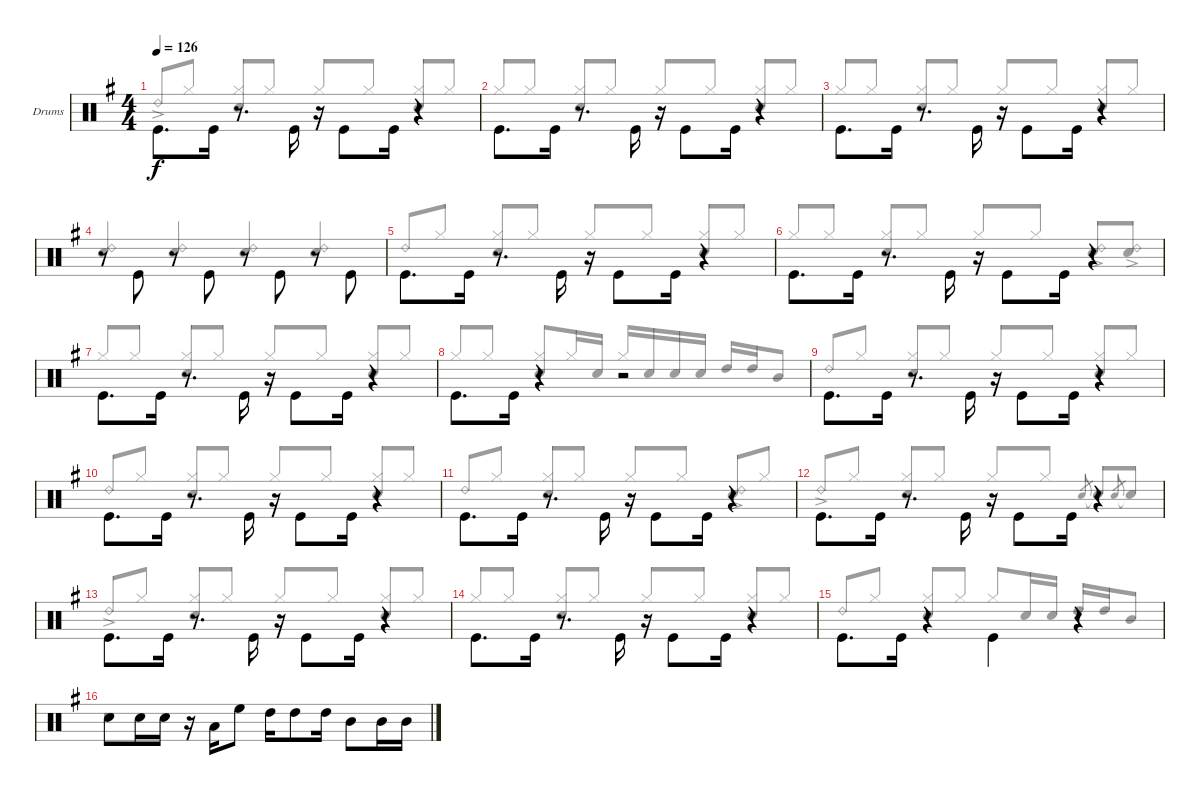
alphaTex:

\defaultSystemsLayout 4
\bracketExtendMode groupsimilarinstruments
\firstSystemTrackNameOrientation horizontal
\otherSystemsTrackNameOrientation horizontal
\track ("Drumkit" "Drums") {instrument percussion}
\staff {score}
\articulation defaults
\voice
\ts (4 4)
\tempo 126
\clef neutral
\scale
1.04288
\ks g "Kick (hit)".8{d dy f beam invert} "Kick (hit)".16
r.8{d beam invert} "Kick (hit)".16{beam invert} r.16{beam invert} "Kick (hit)".8{beam invert} "Kick (hit)".16 r.4{beam invert} |
\scale
0.957125 "Kick (hit)".8{d beam invert} "Kick (hit)".16 r.8{d beam invert} "Kick (hit)".16{beam invert} r.16{beam invert} "Kick (hit)".8{beam invert} "Kick (hit)".16 r.4{beam invert} |
\scale
1.04288 "Kick (hit)".8{d beam invert} "Kick (hit)".16 r.8{d beam invert} "Kick (hit)".16{beam invert} r.16{beam invert} "Kick (hit)".8{beam invert} "Kick (hit)".16 r.4{beam invert} |
\scale
0.957125 r.8 "Kick (hit)".8{beam invert} r.8 "Kick (hit)".8{beam invert} r.8{beam invert} "Kick (hit)".8{beam invert} r.8 "Kick (hit)".8{beam invert} |
\scale
1.04288 "Kick (hit)".8{d beam invert} "Kick (hit)".16 r.8{d beam invert} "Kick (hit)".16{beam invert} r.16{beam invert} "Kick (hit)".8{beam invert} "Kick (hit)".16 r.4{beam invert} |
\scale
0.957125 "Kick (hit)".8{d beam invert} "Kick (hit)".16 r.8{d beam invert} "Kick (hit)".16{beam invert} r.16{beam invert} "Kick (hit)".8{beam invert} "Kick (hit)".16 r.4{beam invert} |
\scale
1.04288 "Kick (hit)".8{d beam invert} "Kick (hit)".16 r.8{d beam invert} "Kick (hit)".16{beam invert} r.16{beam invert} "Kick (hit)".8{beam invert} "Kick (hit)".16 r.4{beam invert} |
\scale
0.957125 "Kick (hit)".8{d beam invert} "Kick (hit)".16 r.4{beam invert} r.2 |
\scale
1.04288 "Kick (hit)".8{d beam invert} "Kick (hit)".16 r.8{d beam invert} "Kick (hit)".16{beam invert} r.16{beam invert} "Kick (hit)".8{beam invert} "Kick (hit)".16 r.4{beam invert} |
\scale
0.957125 "Kick (hit)".8{d beam invert} "Kick (hit)".16 r.8{d beam invert} "Kick (hit)".16{beam invert} r.16{beam invert} "Kick (hit)".8{beam invert} "Kick (hit)".16 r.4{beam invert} |
\scale
1.04288 "Kick (hit)".8{d beam invert} "Kick (hit)".16 r.8{d beam invert} "Kick (hit)".16{beam invert} r.16{beam invert} "Kick (hit)".8{beam invert} "Kick (hit)".16 r.4{beam invert} |
\scale
0.957125 "Kick (hit)".8{d beam invert} "Kick (hit)".16 r.8{d beam invert} "Kick (hit)".16{beam invert} r.16{beam invert} "Kick (hit)".8{beam invert} "Kick (hit)".16 r.4{beam invert} |
\scale
1.04288 "Kick (hit)".8{d beam invert} "Kick (hit)".16 r.8{d beam invert} "Kick (hit)".16{beam invert} r.16{beam invert} "Kick (hit)".8{beam invert} "Kick (hit)".16 r.4{beam invert} |
\scale
0.957125 "Kick (hit)".8{d beam invert} "Kick (hit)".16 r.8{d beam invert} "Kick (hit)".16{beam invert} r.16{beam invert} "Kick (hit)".8{beam invert} "Kick (hit)".16 r.4{beam invert} |
\scale
1.04288 "Kick (hit)".8{d beam invert} "Kick (hit)".16 r.4{beam invert} "Kick (hit)".4{beam invert} r.4 |
\scale
0.957125 "Snare (hit) 2".8{beam invert} "Snare (hit) 2".16 "Snare (hit) 2".16 r.16{beam invert} "Low Tom (hit)".16{beam invert} "High Floor Tom (hit)".8 "High Tom (hit)".16{beam invert} "High Tom (hit)".8 "High Tom (hit)".16 "Mid Tom (hit)".8{beam invert} "Mid Tom (hit)".16 "Mid Tom (hit)".16
\voice
\clef neutral
\ottava regular
\simile none
\scale
1.04288
\ks g "Ride (bell) 2"{ac}.8{dy f beam invert} "Hi-Hat (closed)".8
("Hi-Hat (closed)" "Snare (hit) 2").8{beam invert} "Hi-Hat (closed)".8 "Hi-Hat (closed)".8{beam invert} "Hi-Hat (closed)".8 ("Hi-Hat (closed)" "Snare (hit) 2").8{beam invert} "Hi-Hat (closed)".8 |
\scale
0.957125 "Hi-Hat (closed)".8{beam invert} "Hi-Hat (closed)".8 ("Hi-Hat (closed)" "Snare (hit) 2").8{beam invert} "Hi-Hat (closed)".8 "Hi-Hat (closed)".8{beam invert} "Hi-Hat (closed)".8 ("Hi-Hat (closed)" "Snare (hit) 2").8{beam invert} "Hi-Hat (closed)".8 |
\scale
1.04288 "Hi-Hat (closed)".8{beam invert} "Hi-Hat (closed)".8 ("Hi-Hat (closed)" "Snare (hit) 2").8{beam invert} "Hi-Hat (closed)".8 "Hi-Hat (closed)".8{beam invert} "Hi-Hat (closed)".8 ("Hi-Hat (closed)" "Snare (hit) 2").8{beam invert} "Hi-Hat (closed)".8 |
\scale
0.957125 ("Snare (hit) 2" "Ride (bell) 2").4{beam invert} ("Snare (hit) 2" "Ride (bell) 2").4{beam invert} ("Snare (hit) 2" "Ride (bell) 2").4{beam invert} ("Snare (hit) 2" "Ride (bell) 2").4{beam invert} |
\scale
1.04288 "Ride (bell) 2".8{beam invert} "Hi-Hat (closed)".8 ("Hi-Hat (closed)" "Snare (hit) 2").8{beam invert} "Hi-Hat (closed)".8 "Hi-Hat (closed)".8{beam invert} "Hi-Hat (closed)".8 ("Hi-Hat (closed)" "Snare (hit) 2").8{beam invert} "Hi-Hat (closed)".8 |
\scale
0.957125 "Hi-Hat (closed)".8{beam invert} "Hi-Hat (closed)".8 ("Hi-Hat (closed)" "Snare (hit) 2").8{beam invert} "Hi-Hat (closed)".8 "Hi-Hat (closed)".8{beam invert} "Hi-Hat (closed)".8 ("Snare (hit) 2" "Ride (bell) 2"{ac}).8{beam invert} ("Snare (hit) 2" "Ride (bell) 2"{ac}).8 |
\scale
1.04288 "Hi-Hat (closed)".8{beam invert} "Hi-Hat (closed)".8 ("Hi-Hat (closed)" "Snare (hit) 2").8{beam invert} "Hi-Hat (closed)".8 "Hi-Hat (closed)".8{beam invert} "Hi-Hat (closed)".8 ("Hi-Hat (closed)" "Snare (hit) 2").8{beam invert} "Hi-Hat (closed)".8 |
\scale
0.957125 "Hi-Hat (closed)".8{beam invert} "Hi-Hat (closed)".8 ("Hi-Hat (closed)" "Snare (hit) 2").8{beam invert} "Hi-Hat (closed)".16 "Snare (hit) 2".16 "Hi-Hat (closed)".16{beam invert} "Snare (hit) 2".16 "Snare (hit) 2".16 "Snare (hit) 2".16 "High Tom (hit)".16{beam invert} "High Tom (hit)".16 "Mid Tom (hit)".8 |
\scale
1.04288 "Ride (bell) 2".8{beam invert} "Hi-Hat (closed)".8 ("Hi-Hat (closed)" "Snare (hit) 2").8{beam invert} "Hi-Hat (closed)".8 "Hi-Hat (closed)".8{beam invert} "Hi-Hat (closed)".8 ("Hi-Hat (closed)" "Snare (hit) 2").8{beam invert} "Hi-Hat (closed)".8 |
\scale
0.957125 "Ride (bell) 2".8{beam invert} "Hi-Hat (closed)".8 ("Hi-Hat (closed)" "Snare (hit) 2").8{beam invert} "Hi-Hat (closed)".8 "Hi-Hat (closed)".8{beam invert} "Hi-Hat (closed)".8 ("Hi-Hat (closed)" "Snare (hit) 2").8{beam invert} "Hi-Hat (closed)".8 |
\scale
1.04288 "Ride (bell) 2".8{beam invert} "Hi-Hat (closed)".8 ("Hi-Hat (closed)" "Snare (hit) 2").8{beam invert} "Hi-Hat (closed)".8 "Hi-Hat (closed)".8{beam invert} "Hi-Hat (closed)".8 ("Snare (hit) 2" "Ride (bell) 2"{ac}).8{beam invert} "Hi-Hat (closed)".8 |
\scale
0.957125 "Ride (bell) 2"{ac}.8{beam invert} "Hi-Hat (closed)".8 ("Hi-Hat (closed)" "Snare (hit) 2").8{beam invert} "Hi-Hat (closed)".8 "Hi-Hat (closed)".8{beam invert} "Hi-Hat (closed)".8 "Snare (hit) 2".8{gr beam invert} "Snare (hit) 2"{t}.8{beam invert} "Snare (hit) 2".8{gr beam invert} "Snare (hit) 2"{t}.8{beam invert} |
\scale
1.04288 "Ride (bell) 2"{ac}.8{beam invert} "Hi-Hat (closed)".8 ("Hi-Hat (closed)" "Snare (hit) 2").8{beam invert} "Hi-Hat (closed)".8 "Hi-Hat (closed)".8{beam invert} "Hi-Hat (closed)".8 ("Hi-Hat (closed)" "Snare (hit) 2").8{beam invert} "Hi-Hat (closed)".8 |
\scale
0.957125 "Hi-Hat (closed)".8{beam invert} "Hi-Hat (closed)".8 ("Hi-Hat (closed)" "Snare (hit) 2").8{beam invert} "Hi-Hat (closed)".8 "Hi-Hat (closed)".8{beam invert} "Hi-Hat (closed)".8 ("Hi-Hat (closed)" "Snare (hit) 2").8{beam invert} "Hi-Hat (closed)".8 |
\scale
1.04288 "Ride (bell) 2".8{beam invert} "Hi-Hat (closed)".8 ("Hi-Hat (closed)" "Snare (hit) 2").8{beam invert} "Hi-Hat (closed)".8 "Hi-Hat (closed)".8{beam invert} "Snare (hit) 2".16 "Snare (hit) 2".16 "High Tom (hit)".16{beam invert} "High Tom (hit)".16 "Mid Tom (hit)".8 |
\scale
0.957125 r.1
